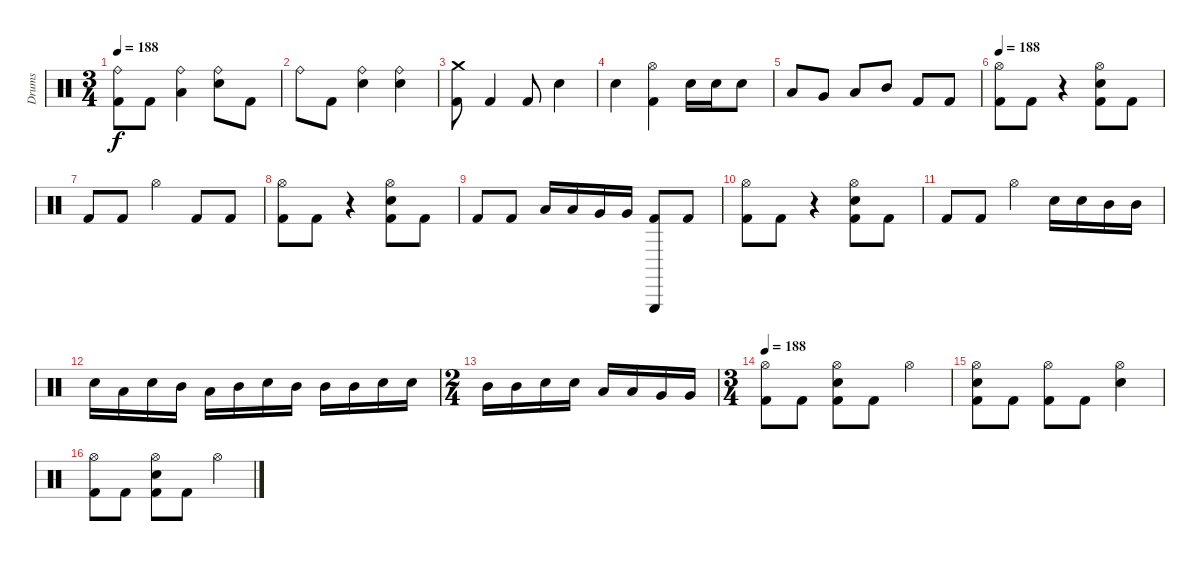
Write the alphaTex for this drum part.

\track ("Drums" "Drums") {instrument percussion}
\staff {score}
\articulation defaults
\ts (3 4)
\tempo 188
\clef neutral
\ks c
("Ride (bell)" "Kick (hit) 2").8{dy f} "Kick (hit) 2".8 ("Ride (bell)" "Low Tom (hit)").4 ("Electric Snare (hit)" "Ride (bell)").8 "Kick (hit) 2".8 |
"Ride (bell)".8 "Kick (hit) 2".8 ("Electric Snare (hit)" "Ride (bell)").4 ("Electric Snare (hit)" "Ride (bell)").4 |
("Crash medium (hit)" "Kick (hit) 2").8 "Kick (hit) 2".4 "Kick (hit) 2".8 "Electric Snare (hit)".4 |
"Electric Snare (hit)".4 ("Hi-Hat (open)" "Kick (hit) 2").4 "Electric Snare (hit)".16 "Electric Snare (hit)".16 "Electric Snare (hit)".8 |
"Low Floor Tom (hit)".8 "Very Low Tom (hit)".8 "Low Tom (hit)".8 "Mid Tom (hit)".8 "Kick (hit) 2".8 "Kick (hit) 2".8 |
\tempo 188
("Hi-Hat (open)" "Kick (hit) 2").8 "Kick (hit) 2".8 r.4 ("Electric Snare (hit)" "Hi-Hat (open)" "Kick (hit) 2").8 "Kick (hit) 2".8 |
"Kick (hit) 2".8 "Kick (hit) 2".8 "Hi-Hat (open)".4 "Kick (hit) 2".8 "Kick (hit) 2".8 |
("Hi-Hat (open)" "Kick (hit) 2").8 "Kick (hit) 2".8 r.4 ("Electric Snare (hit)" "Hi-Hat (open)" "Kick (hit) 2").8 "Kick (hit) 2".8 |
"Kick (hit) 2".8 "Kick (hit) 2".8 "Low Tom (hit)".16 "Low Tom (hit)".16 "Very Low Tom (hit)".16 "Very Low Tom (hit)".16 ("Triangle (hit)" "Kick (hit) 2").8 "Kick (hit) 2".8 |
("Hi-Hat (open)" "Kick (hit) 2").8 "Kick (hit) 2".8 r.4 ("Electric Snare (hit)" "Hi-Hat (open)" "Kick (hit) 2").8 "Kick (hit) 2".8 |
"Kick (hit) 2".8 "Kick (hit) 2".8 "Hi-Hat (open)".4 "Electric Snare (hit)".16 "Electric Snare (hit)".16 "Mid Tom (hit)".16 "Mid Tom (hit)".16 |
"Electric Snare (hit)".16 "Low Tom (hit)".16 "Electric Snare (hit)".16 "Mid Tom (hit)".16 "Low Tom (hit)".16 "Mid Tom (hit)".16 "Electric Snare (hit)".16 "Mid Tom (hit)".16 "Mid Tom (hit)".16 "Mid Tom (hit)".16 "Electric Snare (hit)".16 "Electric Snare (hit)".16 |
\ts (2 4)
"Mid Tom (hit)".16 "Mid Tom (hit)".16 "Electric Snare (hit)".16 "Electric Snare (hit)".16 "Low Tom (hit)".16 "Low Tom (hit)".16 "Very Low Tom (hit)".16 "Very Low Tom (hit)".16 |
\ts (3 4)
\tempo 188
("Hi-Hat (open)" "Kick (hit) 2").8 "Kick (hit) 2".8 ("Electric Snare (hit)" "Hi-Hat (open)" "Kick (hit) 2").8 "Kick (hit) 2".8 "Hi-Hat (open)".4 |
("Electric Snare (hit)" "Hi-Hat (open)" "Kick (hit) 2").8 "Kick (hit) 2".8 ("Hi-Hat (open)" "Kick (hit) 2").8 "Kick (hit) 2".8 ("Electric Snare (hit)" "Hi-Hat (open)").4 |
("Hi-Hat (open)" "Kick (hit) 2").8 "Kick (hit) 2".8 ("Electric Snare (hit)" "Hi-Hat (open)" "Kick (hit) 2").8 "Kick (hit) 2".8 "Hi-Hat (open)".4
